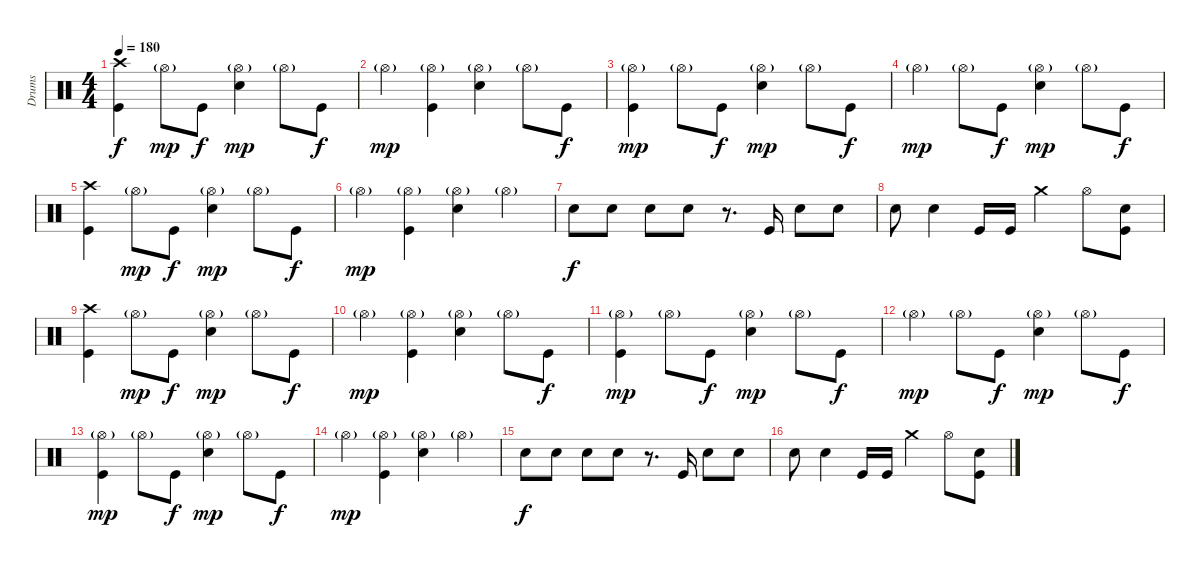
\track ("Drums" "Drums") {instrument percussion}
\staff {score}
\articulation defaults
\ts (4 4)
\tempo 180
\clef neutral
\ks c
("Crash high (hit)" "Kick (hit)").4{dy f} "Hi-Hat (open)"{g}.8{dy mp} "Kick (hit)".8{dy f} ("Hi-Hat (open)"{g} "Snare (hit) 2").4{dy mp} "Hi-Hat (open)"{g}.8 "Kick (hit)".8{dy f} |
"Hi-Hat (open)"{g}.4{dy mp} ("Hi-Hat (open)"{g} "Kick (hit)").4 ("Hi-Hat (open)"{g} "Snare (hit) 2").4 "Hi-Hat (open)"{g}.8 "Kick (hit)".8{dy f} |
("Hi-Hat (open)"{g} "Kick (hit)").4{dy mp} "Hi-Hat (open)"{g}.8 "Kick (hit)".8{dy f} ("Hi-Hat (open)"{g} "Snare (hit) 2").4{dy mp} "Hi-Hat (open)"{g}.8 "Kick (hit)".8{dy f} |
"Hi-Hat (open)"{g}.4{dy mp} "Hi-Hat (open)"{g}.8 "Kick (hit)".8{dy f} ("Hi-Hat (open)"{g} "Snare (hit) 2").4{dy mp} "Hi-Hat (open)"{g}.8 "Kick (hit)".8{dy f} |
("Crash high (hit)" "Kick (hit)").4 "Hi-Hat (open)"{g}.8{dy mp} "Kick (hit)".8{dy f} ("Hi-Hat (open)"{g} "Snare (hit) 2").4{dy mp} "Hi-Hat (open)"{g}.8 "Kick (hit)".8{dy f} |
"Hi-Hat (open)"{g}.4{dy mp} ("Hi-Hat (open)"{g} "Kick (hit)").4 ("Hi-Hat (open)"{g} "Snare (hit) 2").4 "Hi-Hat (open)"{g}.4 |
"Electric Snare (hit)".8{dy f} "Electric Snare (hit)".8 "Electric Snare (hit)".8 "Electric Snare (hit)".8 r.8{d} "Kick (hit)".16 "Electric Snare (hit)".8 "Electric Snare (hit)".8 |
"Electric Snare (hit)".8 "Electric Snare (hit)".4 "Kick (hit)".16 "Kick (hit)".16 "Crash medium (hit)".4 "Hi-Hat (open)".8 ("Electric Snare (hit)" "Kick (hit)").8 |
("Crash high (hit)" "Kick (hit)").4 "Hi-Hat (open)"{g}.8{dy mp} "Kick (hit)".8{dy f} ("Hi-Hat (open)"{g} "Snare (hit) 2").4{dy mp} "Hi-Hat (open)"{g}.8 "Kick (hit)".8{dy f} |
"Hi-Hat (open)"{g}.4{dy mp} ("Hi-Hat (open)"{g} "Kick (hit)").4 ("Hi-Hat (open)"{g} "Snare (hit) 2").4 "Hi-Hat (open)"{g}.8 "Kick (hit)".8{dy f} |
("Hi-Hat (open)"{g} "Kick (hit)").4{dy mp} "Hi-Hat (open)"{g}.8 "Kick (hit)".8{dy f} ("Hi-Hat (open)"{g} "Snare (hit) 2").4{dy mp} "Hi-Hat (open)"{g}.8 "Kick (hit)".8{dy f} |
"Hi-Hat (open)"{g}.4{dy mp} "Hi-Hat (open)"{g}.8 "Kick (hit)".8{dy f} ("Hi-Hat (open)"{g} "Snare (hit) 2").4{dy mp} "Hi-Hat (open)"{g}.8 "Kick (hit)".8{dy f} |
("Hi-Hat (open)"{g} "Kick (hit)").4{dy mp} "Hi-Hat (open)"{g}.8 "Kick (hit)".8{dy f} ("Hi-Hat (open)"{g} "Snare (hit) 2").4{dy mp} "Hi-Hat (open)"{g}.8 "Kick (hit)".8{dy f} |
"Hi-Hat (open)"{g}.4{dy mp} ("Hi-Hat (open)"{g} "Kick (hit)").4 ("Hi-Hat (open)"{g} "Snare (hit) 2").4 "Hi-Hat (open)"{g}.4 |
"Electric Snare (hit)".8{dy f} "Electric Snare (hit)".8 "Electric Snare (hit)".8 "Electric Snare (hit)".8 r.8{d} "Kick (hit)".16 "Electric Snare (hit)".8 "Electric Snare (hit)".8 |
"Electric Snare (hit)".8 "Electric Snare (hit)".4 "Kick (hit)".16 "Kick (hit)".16 "Crash medium (hit)".4 "Hi-Hat (open)".8 ("Electric Snare (hit)" "Kick (hit)").8
